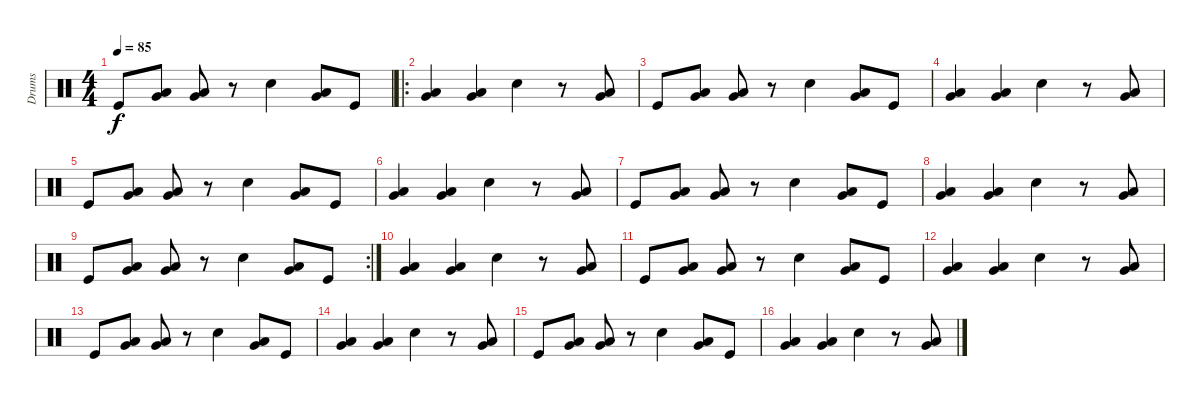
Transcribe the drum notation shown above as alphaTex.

\track ("Drums" "Drums") {instrument percussion}
\staff {score}
\articulation defaults
\ts (4 4)
\tempo 85
\clef neutral
\ks c "Kick (hit)".8{dy f}
("Very Low Tom (hit)" "Low Floor Tom (hit)").8 ("Very Low Tom (hit)" "Low Floor Tom (hit)").8 r.8 "Electric Snare (hit)".4 ("Very Low Tom (hit)" "Low Floor Tom (hit)").8 "Kick (hit)".8 |
\ro
("Very Low Tom (hit)" "Low Floor Tom (hit)").4 ("Very Low Tom (hit)" "Low Floor Tom (hit)").4 "Electric Snare (hit)".4 r.8 ("Very Low Tom (hit)" "Low Floor Tom (hit)").8 |
"Kick (hit)".8 ("Very Low Tom (hit)" "Low Floor Tom (hit)").8 ("Very Low Tom (hit)" "Low Floor Tom (hit)").8 r.8 "Electric Snare (hit)".4 ("Very Low Tom (hit)" "Low Floor Tom (hit)").8 "Kick (hit)".8 |
("Very Low Tom (hit)" "Low Floor Tom (hit)").4 ("Very Low Tom (hit)" "Low Floor Tom (hit)").4 "Electric Snare (hit)".4 r.8 ("Very Low Tom (hit)" "Low Floor Tom (hit)").8 |
"Kick (hit)".8 ("Very Low Tom (hit)" "Low Floor Tom (hit)").8 ("Very Low Tom (hit)" "Low Floor Tom (hit)").8 r.8 "Electric Snare (hit)".4 ("Very Low Tom (hit)" "Low Floor Tom (hit)").8 "Kick (hit)".8 |
("Very Low Tom (hit)" "Low Floor Tom (hit)").4 ("Very Low Tom (hit)" "Low Floor Tom (hit)").4 "Electric Snare (hit)".4 r.8 ("Very Low Tom (hit)" "Low Floor Tom (hit)").8 |
"Kick (hit)".8 ("Very Low Tom (hit)" "Low Floor Tom (hit)").8 ("Very Low Tom (hit)" "Low Floor Tom (hit)").8 r.8 "Electric Snare (hit)".4 ("Very Low Tom (hit)" "Low Floor Tom (hit)").8 "Kick (hit)".8 |
("Very Low Tom (hit)" "Low Floor Tom (hit)").4 ("Very Low Tom (hit)" "Low Floor Tom (hit)").4 "Electric Snare (hit)".4 r.8 ("Very Low Tom (hit)" "Low Floor Tom (hit)").8 |
\rc 2 "Kick (hit)".8
("Very Low Tom (hit)" "Low Floor Tom (hit)").8 ("Very Low Tom (hit)" "Low Floor Tom (hit)").8 r.8 "Electric Snare (hit)".4 ("Very Low Tom (hit)" "Low Floor Tom (hit)").8 "Kick (hit)".8 |
("Very Low Tom (hit)" "Low Floor Tom (hit)").4 ("Very Low Tom (hit)" "Low Floor Tom (hit)").4 "Electric Snare (hit)".4 r.8 ("Very Low Tom (hit)" "Low Floor Tom (hit)").8 |
"Kick (hit)".8 ("Very Low Tom (hit)" "Low Floor Tom (hit)").8 ("Very Low Tom (hit)" "Low Floor Tom (hit)").8 r.8 "Electric Snare (hit)".4 ("Very Low Tom (hit)" "Low Floor Tom (hit)").8 "Kick (hit)".8 |
("Very Low Tom (hit)" "Low Floor Tom (hit)").4 ("Very Low Tom (hit)" "Low Floor Tom (hit)").4 "Electric Snare (hit)".4 r.8 ("Very Low Tom (hit)" "Low Floor Tom (hit)").8 |
"Kick (hit)".8 ("Very Low Tom (hit)" "Low Floor Tom (hit)").8 ("Very Low Tom (hit)" "Low Floor Tom (hit)").8 r.8 "Electric Snare (hit)".4 ("Very Low Tom (hit)" "Low Floor Tom (hit)").8 "Kick (hit)".8 |
("Very Low Tom (hit)" "Low Floor Tom (hit)").4 ("Very Low Tom (hit)" "Low Floor Tom (hit)").4 "Electric Snare (hit)".4 r.8 ("Very Low Tom (hit)" "Low Floor Tom (hit)").8 |
"Kick (hit)".8 ("Very Low Tom (hit)" "Low Floor Tom (hit)").8 ("Very Low Tom (hit)" "Low Floor Tom (hit)").8 r.8 "Electric Snare (hit)".4 ("Very Low Tom (hit)" "Low Floor Tom (hit)").8 "Kick (hit)".8 |
("Very Low Tom (hit)" "Low Floor Tom (hit)").4 ("Very Low Tom (hit)" "Low Floor Tom (hit)").4 "Electric Snare (hit)".4 r.8 ("Very Low Tom (hit)" "Low Floor Tom (hit)").8
